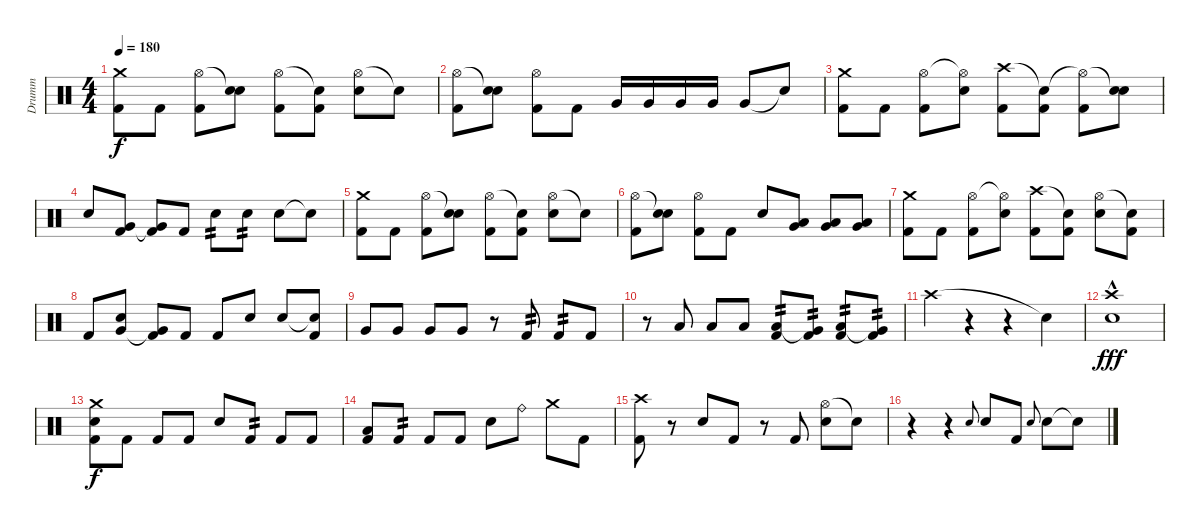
\track ("Drumm" "Drumm") {instrument percussion}
\staff {score}
\articulation defaults
\ts (4 4)
\tempo 180
\clef neutral
\ks c
("Crash medium (hit)" "Kick (hit) 2").8{dy f} "Kick (hit) 2".8 ("Hi-Hat (open)" "Kick (hit) 2").8 ("Snare (hit)"{t} "Snare (hit) 2").8 ("Hi-Hat (open)" "Kick (hit) 2").8 ("Snare (hit)"{t} "Kick (hit) 2").8 ("Hi-Hat (open)" "Snare (hit) 2").8 "Snare (hit)"{t}.8 |
("Hi-Hat (open)" "Kick (hit) 2").8 ("Snare (hit)"{t} "Snare (hit) 2").8 ("Hi-Hat (open)" "Kick (hit) 2").8 "Kick (hit) 2".8 "Very Low Tom (hit)".16 "Very Low Tom (hit)".16 "Very Low Tom (hit)".16 "Very Low Tom (hit)".16 "Very Low Tom (hit)".8 "Snare (hit)"{t}.8 |
("Crash medium (hit)" "Kick (hit) 2").8 "Kick (hit) 2".8 ("Hi-Hat (open)" "Kick (hit) 2").8 ("Hi-Hat (open)"{t} "Snare (hit) 2").8 ("Crash high (hit)" "Kick (hit) 2").8 ("Snare (hit)"{t} "Kick (hit) 2").8 ("Hi-Hat (open)"{t} "Kick (hit) 2").8 ("Snare (hit)"{t} "Snare (hit) 2").8 |
"Snare (hit) 2".8 ("Very Low Tom (hit)" "Kick (hit) 2").8 ("Very Low Tom (hit)"{t} "Kick (hit) 2").8 "Kick (hit) 2".8 "Snare (hit) 2".8{tp 2} "Snare (hit) 2".8{tp 2} "Snare (hit) 2".8 "Snare (hit) 2"{t}.8 |
("Crash medium (hit)" "Kick (hit) 2").8 "Kick (hit) 2".8 ("Hi-Hat (open)" "Kick (hit) 2").8 ("Snare (hit)"{t} "Snare (hit) 2").8 ("Hi-Hat (open)" "Kick (hit) 2").8 ("Snare (hit)"{t} "Kick (hit) 2").8 ("Hi-Hat (open)" "Snare (hit) 2").8 "Snare (hit)"{t}.8 |
("Hi-Hat (open)" "Kick (hit) 2").8 ("Snare (hit)"{t} "Snare (hit) 2").8 ("Hi-Hat (open)" "Kick (hit) 2").8 "Kick (hit) 2".8 "Snare (hit) 2".8 ("Low Floor Tom (hit)" "Very Low Tom (hit)").8 ("Low Floor Tom (hit)" "Very Low Tom (hit)").8 ("Low Floor Tom (hit)" "Very Low Tom (hit)").8 |
("Crash medium (hit)" "Kick (hit) 2").8 "Kick (hit) 2".8 ("Hi-Hat (open)" "Kick (hit) 2").8 ("Hi-Hat (open)"{t} "Snare (hit) 2").8 ("Crash high (hit)" "Kick (hit) 2").8 ("Snare (hit)"{t} "Kick (hit) 2").8 ("Hi-Hat (open)" "Snare (hit) 2").8 ("Snare (hit)"{t} "Kick (hit) 2").8 |
"Kick (hit) 2".8 ("Very Low Tom (hit)" "Snare (hit) 2").8 ("Very Low Tom (hit)"{t} "Kick (hit) 2").8 "Kick (hit) 2".8 "Kick (hit) 2".8 "Snare (hit) 2".8 "Snare (hit) 2".8 ("Snare (hit) 2"{t} "Kick (hit) 2").8 |
"Very Low Tom (hit)".8 "Very Low Tom (hit)".8 "Very Low Tom (hit)".8 "Very Low Tom (hit)".8 r.8 "Kick (hit) 2".8{tp 2} "Kick (hit) 2".8{tp 2} "Kick (hit) 2".8 |
r.8 "Low Floor Tom (hit)".8 "Low Floor Tom (hit)".8 "Low Floor Tom (hit)".8 ("Low Floor Tom (hit)" "Kick (hit) 2").8{tp 2} ("Very Low Tom (hit)"{t} "Kick (hit) 2").8{tp 2} ("Low Floor Tom (hit)" "Kick (hit) 2").8{tp 2} ("Very Low Tom (hit)"{t} "Kick (hit) 2").8{tp 2} |
"Crash high (hit)".4 r.4 r.4 "Snare (hit)"{t}.4 |
("Crash high (hit)" "Snare (hit) 2"{hac}).1{dy fff} |
("Crash medium (hit)" "Snare (hit) 2" "Kick (hit) 2").8{dy f} "Kick (hit) 2".8 "Kick (hit) 2".8 "Kick (hit) 2".8 "Snare (hit) 2".8 "Kick (hit) 2".8{tp 2} "Kick (hit) 2".8 "Kick (hit) 2".8 |
("Low Floor Tom (hit)" "Kick (hit) 2").8 "Kick (hit) 2".8{tp 2} "Kick (hit) 2".8 "Kick (hit) 2".8 "Snare (hit) 2".8 "Ride (bell)".8 "Crash medium (hit)".8 "Kick (hit) 2".8 |
("Crash high (hit)" "Kick (hit) 2").8 r.8 "Snare (hit) 2".8 "Kick (hit) 2".8 r.8 "Kick (hit) 2".8 ("Hi-Hat (open)" "Snare (hit) 2").8 "Snare (hit) 2"{t}.8 |
r.4 r.4 "Snare (hit) 2".8{gr onbeat} "Snare (hit) 2".8 "Kick (hit) 2".8 "Snare (hit) 2".8{gr onbeat} "Snare (hit) 2".8 "Snare (hit)"{t}.8
